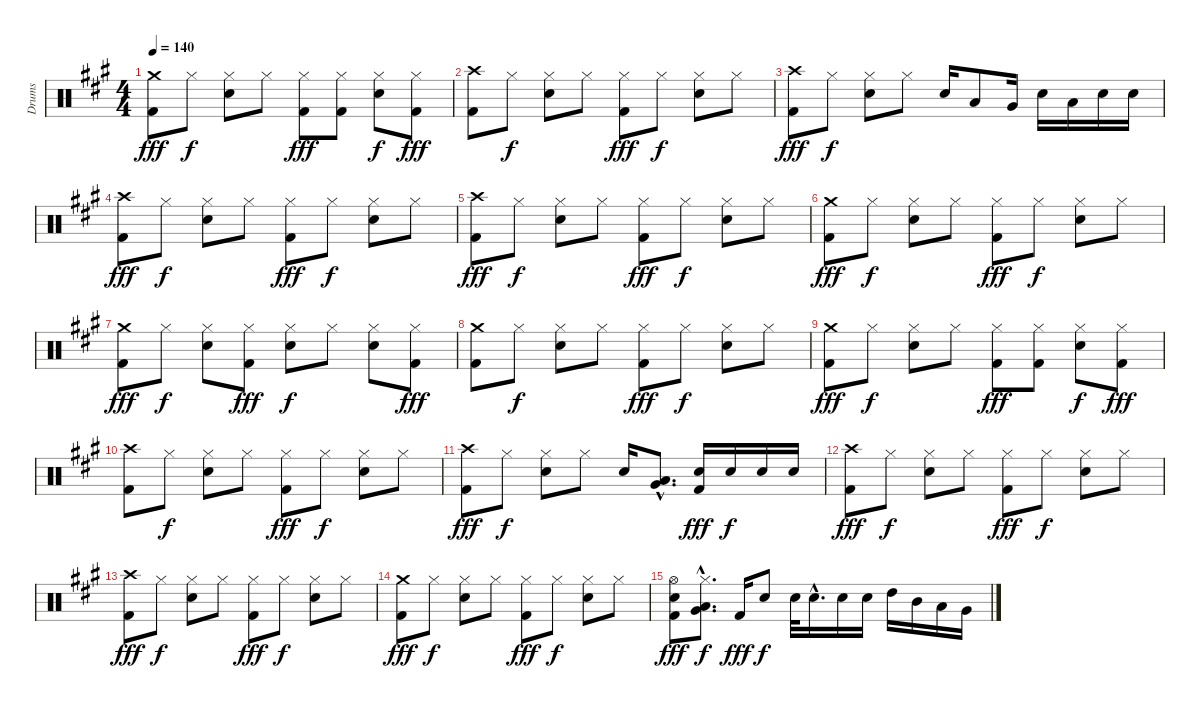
\track ("Drums" "Drums") {instrument percussion}
\staff {score}
\articulation defaults
\ts (4 4)
\tempo 140
\clef neutral
\ks a
("Crash medium (hit)" "Kick (hit) 2").8{dy fff} "Hi-Hat (closed)".8{dy f} ("Hi-Hat (closed)" "Electric Snare (hit)").8 "Hi-Hat (closed)".8 ("Hi-Hat (closed)" "Kick (hit) 2").8{dy fff} ("Hi-Hat (closed)" "Kick (hit) 2").8 ("Hi-Hat (closed)" "Electric Snare (hit)").8{dy f} ("Hi-Hat (closed)" "Kick (hit) 2").8{dy fff} |
("Crash high (hit)" "Kick (hit) 2").8 "Hi-Hat (closed)".8{dy f} ("Hi-Hat (closed)" "Electric Snare (hit)").8 "Hi-Hat (closed)".8 ("Hi-Hat (closed)" "Kick (hit) 2").8{dy fff} "Hi-Hat (closed)".8{dy f} ("Hi-Hat (closed)" "Electric Snare (hit)").8 "Hi-Hat (closed)".8 |
("Crash high (hit)" "Kick (hit) 2").8{dy fff} "Hi-Hat (closed)".8{dy f} ("Hi-Hat (closed)" "Electric Snare (hit)").8 "Hi-Hat (closed)".8 "Electric Snare (hit)".16 "Low Tom (hit)".8 "Very Low Tom (hit)".16 "Electric Snare (hit)".16 "Low Floor Tom (hit)".16 "Electric Snare (hit)".16 "Electric Snare (hit)".16 |
("Crash high (hit)" "Kick (hit) 2").8{dy fff} "Hi-Hat (closed)".8{dy f} ("Hi-Hat (closed)" "Electric Snare (hit)").8 "Hi-Hat (closed)".8 ("Hi-Hat (closed)" "Kick (hit) 2").8{dy fff} "Hi-Hat (closed)".8{dy f} ("Hi-Hat (closed)" "Electric Snare (hit)").8 "Hi-Hat (closed)".8 |
("Crash high (hit)" "Kick (hit) 2").8{dy fff} "Hi-Hat (closed)".8{dy f} ("Hi-Hat (closed)" "Electric Snare (hit)").8 "Hi-Hat (closed)".8 ("Hi-Hat (closed)" "Kick (hit) 2").8{dy fff} "Hi-Hat (closed)".8{dy f} ("Hi-Hat (closed)" "Electric Snare (hit)").8 "Hi-Hat (closed)".8 |
("Crash medium (hit)" "Kick (hit) 2").8{dy fff} "Hi-Hat (closed)".8{dy f} ("Hi-Hat (closed)" "Electric Snare (hit)").8 "Hi-Hat (closed)".8 ("Hi-Hat (closed)" "Kick (hit) 2").8{dy fff} "Hi-Hat (closed)".8{dy f} ("Hi-Hat (closed)" "Electric Snare (hit)").8 "Hi-Hat (closed)".8 |
("Crash medium (hit)" "Kick (hit) 2").8{dy fff} "Hi-Hat (closed)".8{dy f} ("Hi-Hat (closed)" "Electric Snare (hit)").8 ("Hi-Hat (closed)" "Kick (hit) 2").8{dy fff} ("Hi-Hat (closed)" "Electric Snare (hit)").8{dy f} "Hi-Hat (closed)".8 ("Hi-Hat (closed)" "Electric Snare (hit)").8 ("Hi-Hat (closed)" "Kick (hit) 2").8{dy fff} |
("Crash medium (hit)" "Kick (hit) 2").8{volume 7} "Hi-Hat (closed)".8{dy f} ("Hi-Hat (closed)" "Electric Snare (hit)").8 "Hi-Hat (closed)".8 ("Hi-Hat (closed)" "Kick (hit) 2").8{dy fff} "Hi-Hat (closed)".8{dy f} ("Hi-Hat (closed)" "Electric Snare (hit)").8 "Hi-Hat (closed)".8 |
("Crash medium (hit)" "Kick (hit) 2").8{dy fff} "Hi-Hat (closed)".8{dy f} ("Hi-Hat (closed)" "Electric Snare (hit)").8 "Hi-Hat (closed)".8 ("Hi-Hat (closed)" "Kick (hit) 2").8{dy fff} ("Hi-Hat (closed)" "Kick (hit) 2").8 ("Hi-Hat (closed)" "Electric Snare (hit)").8{dy f} ("Hi-Hat (closed)" "Kick (hit) 2").8{dy fff} |
("Crash high (hit)" "Kick (hit) 2").8 "Hi-Hat (closed)".8{dy f} ("Hi-Hat (closed)" "Electric Snare (hit)").8 "Hi-Hat (closed)".8 ("Hi-Hat (closed)" "Kick (hit) 2").8{dy fff} "Hi-Hat (closed)".8{dy f} ("Hi-Hat (closed)" "Electric Snare (hit)").8 "Hi-Hat (closed)".8 |
("Crash high (hit)" "Kick (hit) 2").8{dy fff} "Hi-Hat (closed)".8{dy f} ("Hi-Hat (closed)" "Electric Snare (hit)").8 "Hi-Hat (closed)".8 "Electric Snare (hit)".16 ("Low Tom (hit)"{hac} "Very Low Tom (hit)"{hac}).8{d} ("Electric Snare (hit)" "Kick (hit) 2").16{dy fff} "Electric Snare (hit)".16{dy f} "Electric Snare (hit)".16 "Electric Snare (hit)".16 |
("Crash high (hit)" "Kick (hit) 2").8{dy fff volume 0} "Hi-Hat (closed)".8{dy f} ("Hi-Hat (closed)" "Electric Snare (hit)").8 "Hi-Hat (closed)".8 ("Hi-Hat (closed)" "Kick (hit) 2").8{dy fff} "Hi-Hat (closed)".8{dy f} ("Hi-Hat (closed)" "Electric Snare (hit)").8 "Hi-Hat (closed)".8 |
("Crash high (hit)" "Kick (hit) 2").8{dy fff} "Hi-Hat (closed)".8{dy f} ("Hi-Hat (closed)" "Electric Snare (hit)").8 "Hi-Hat (closed)".8 ("Hi-Hat (closed)" "Kick (hit) 2").8{dy fff} "Hi-Hat (closed)".8{dy f} ("Hi-Hat (closed)" "Electric Snare (hit)").8 "Hi-Hat (closed)".8 |
("Crash medium (hit)" "Kick (hit) 2").8{dy fff} "Hi-Hat (closed)".8{dy f} ("Hi-Hat (closed)" "Electric Snare (hit)").8 "Hi-Hat (closed)".8 ("Hi-Hat (closed)" "Kick (hit) 2").8{dy fff} "Hi-Hat (closed)".8{dy f} ("Hi-Hat (closed)" "Electric Snare (hit)").8 "Hi-Hat (closed)".8 |
("Hi-Hat (open)" "Electric Snare (hit)" "Kick (hit) 2").8{dy fff} ("Hi-Hat (closed)"{hac} "Low Tom (hit)"{hac} "Very Low Tom (hit)"{hac}).8{d dy f} "Kick (hit) 2".16{dy fff} "Electric Snare (hit)".8{dy f} "Electric Snare (hit)".32 "Electric Snare (hit)"{hac}.16{d} "Electric Snare (hit)".16 "Electric Snare (hit)".16 "High Tom (hit)".16 "Mid Tom (hit)".16 "Low Tom (hit)".16 "Very Low Tom (hit)".16
